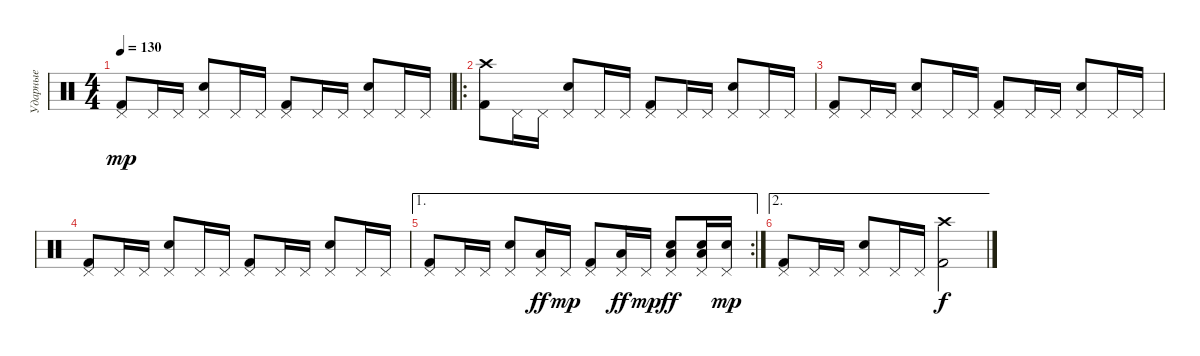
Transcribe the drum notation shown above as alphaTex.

\track ("Ударные" "Ударные") {instrument percussion}
\staff {score}
\articulation defaults
\ts (4 4)
\tempo 130
\clef neutral
\ks c
("Pedal Hi-Hat (hit)" "Kick (hit) 2").8{dy mp} "Pedal Hi-Hat (hit)".16 "Pedal Hi-Hat (hit)".16 ("Pedal Hi-Hat (hit)" "Snare (hit) 2").8 "Pedal Hi-Hat (hit)".16 "Pedal Hi-Hat (hit)".16 ("Pedal Hi-Hat (hit)" "Kick (hit) 2").8 "Pedal Hi-Hat (hit)".16 "Pedal Hi-Hat (hit)".16 ("Pedal Hi-Hat (hit)" "Snare (hit) 2").8 "Pedal Hi-Hat (hit)".16 "Pedal Hi-Hat (hit)".16 |
\ro
("Crash high (hit)" "Kick (hit) 2").8 "Pedal Hi-Hat (hit)".16 "Pedal Hi-Hat (hit)".16 ("Pedal Hi-Hat (hit)" "Snare (hit) 2").8 "Pedal Hi-Hat (hit)".16 "Pedal Hi-Hat (hit)".16 ("Pedal Hi-Hat (hit)" "Kick (hit) 2").8 "Pedal Hi-Hat (hit)".16 "Pedal Hi-Hat (hit)".16 ("Pedal Hi-Hat (hit)" "Snare (hit) 2").8 "Pedal Hi-Hat (hit)".16 "Pedal Hi-Hat (hit)".16 |
("Pedal Hi-Hat (hit)" "Kick (hit) 2").8 "Pedal Hi-Hat (hit)".16 "Pedal Hi-Hat (hit)".16 ("Pedal Hi-Hat (hit)" "Snare (hit) 2").8 "Pedal Hi-Hat (hit)".16 "Pedal Hi-Hat (hit)".16 ("Pedal Hi-Hat (hit)" "Kick (hit) 2").8 "Pedal Hi-Hat (hit)".16 "Pedal Hi-Hat (hit)".16 ("Pedal Hi-Hat (hit)" "Snare (hit) 2").8 "Pedal Hi-Hat (hit)".16 "Pedal Hi-Hat (hit)".16 |
("Pedal Hi-Hat (hit)" "Kick (hit) 2").8 "Pedal Hi-Hat (hit)".16 "Pedal Hi-Hat (hit)".16 ("Pedal Hi-Hat (hit)" "Snare (hit) 2").8 "Pedal Hi-Hat (hit)".16 "Pedal Hi-Hat (hit)".16 ("Pedal Hi-Hat (hit)" "Kick (hit) 2").8 "Pedal Hi-Hat (hit)".16 "Pedal Hi-Hat (hit)".16 ("Pedal Hi-Hat (hit)" "Snare (hit) 2").8 "Pedal Hi-Hat (hit)".16 "Pedal Hi-Hat (hit)".16 |
\ae 1
\rc 2
("Pedal Hi-Hat (hit)" "Kick (hit) 2").8 "Pedal Hi-Hat (hit)".16 "Pedal Hi-Hat (hit)".16 ("Pedal Hi-Hat (hit)" "Snare (hit) 2").8 ("Pedal Hi-Hat (hit)" "Low Tom (hit)").16{dy ff} "Pedal Hi-Hat (hit)".16{dy mp} ("Pedal Hi-Hat (hit)" "Kick (hit) 2").8 ("Pedal Hi-Hat (hit)" "Low Tom (hit)").16{dy ff} "Pedal Hi-Hat (hit)".16{dy mp} ("Pedal Hi-Hat (hit)" "Snare (hit) 2" "Low Tom (hit)").8{dy ff} ("Pedal Hi-Hat (hit)" "Snare (hit) 2" "Low Tom (hit)").16 ("Pedal Hi-Hat (hit)" "Snare (hit) 2").16{dy mp} |
\ae 2
("Pedal Hi-Hat (hit)" "Kick (hit) 2").8 "Pedal Hi-Hat (hit)".16 "Pedal Hi-Hat (hit)".16 ("Pedal Hi-Hat (hit)" "Snare (hit) 2").8 "Pedal Hi-Hat (hit)".16 "Pedal Hi-Hat (hit)".16 ("Crash high (hit)" "Kick (hit) 2").2{dy f}
